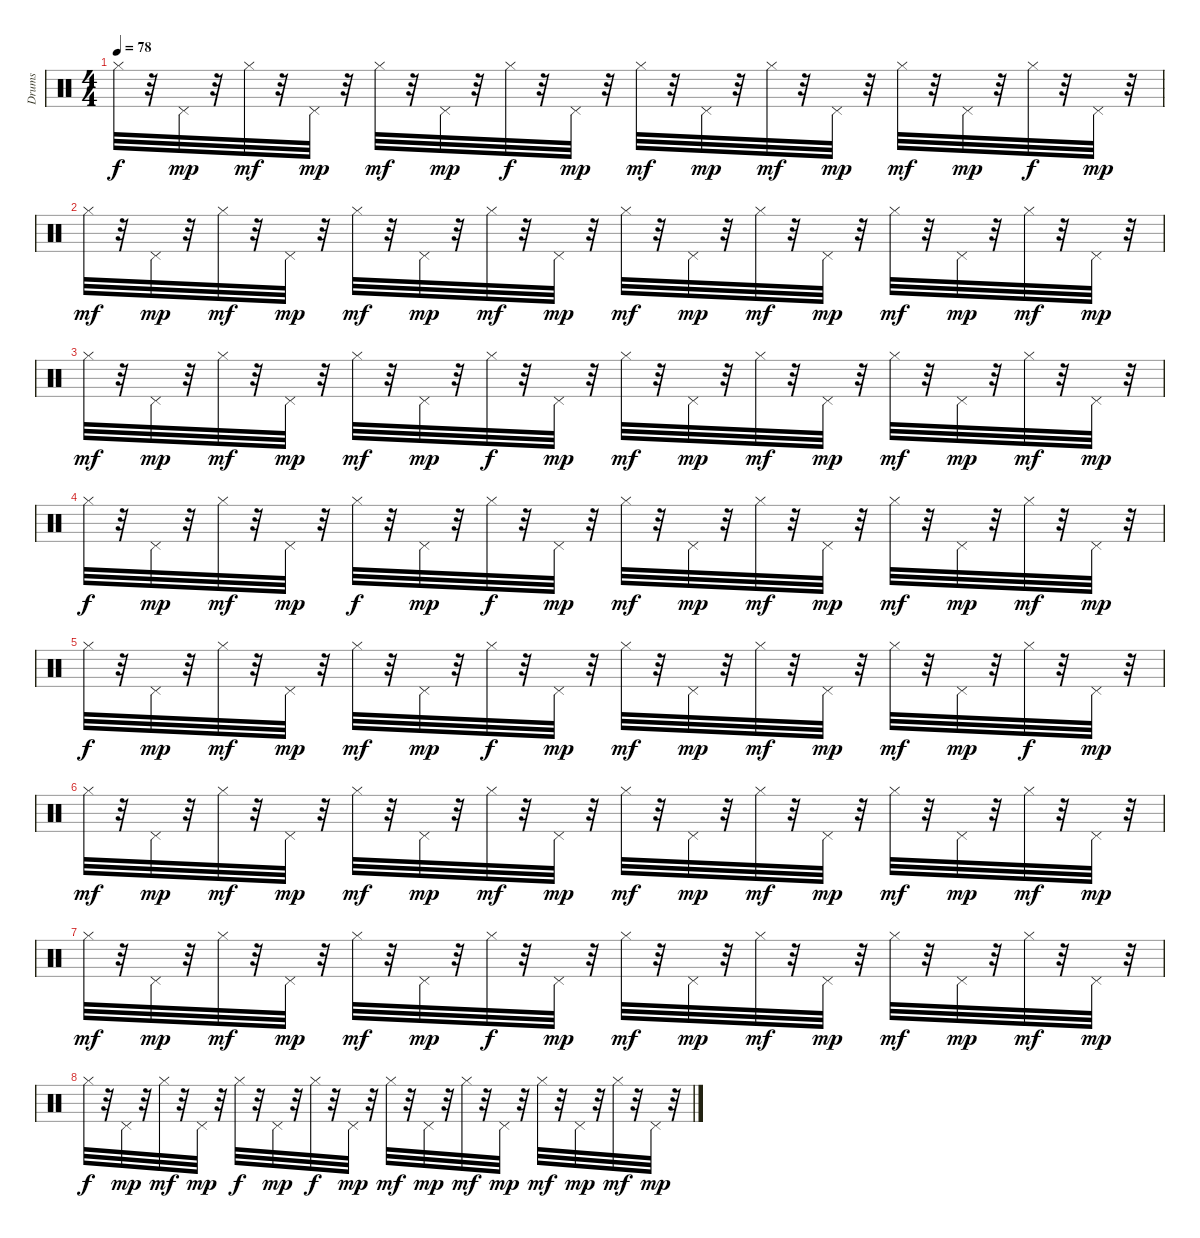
\track ("Drums   " "Drums   ") {instrument percussion}
\staff {score}
\articulation defaults
\ts (4 4)
\tempo 78
\clef neutral
\ks c "Hi-Hat (closed)".32{dy f}
r.32 "Pedal Hi-Hat (hit)".32{dy mp} r.32 "Hi-Hat (closed)".32{dy mf} r.32 "Pedal Hi-Hat (hit)".32{dy mp} r.32 "Hi-Hat (closed)".32{dy mf} r.32 "Pedal Hi-Hat (hit)".32{dy mp} r.32 "Hi-Hat (closed)".32{dy f} r.32 "Pedal Hi-Hat (hit)".32{dy mp} r.32 "Hi-Hat (closed)".32{dy mf} r.32 "Pedal Hi-Hat (hit)".32{dy mp} r.32 "Hi-Hat (closed)".32{dy mf} r.32 "Pedal Hi-Hat (hit)".32{dy mp} r.32 "Hi-Hat (closed)".32{dy mf} r.32 "Pedal Hi-Hat (hit)".32{dy mp} r.32 "Hi-Hat (closed)".32{dy f} r.32 "Pedal Hi-Hat (hit)".32{dy mp} r.32 |
"Hi-Hat (closed)".32{dy mf} r.32 "Pedal Hi-Hat (hit)".32{dy mp} r.32 "Hi-Hat (closed)".32{dy mf} r.32 "Pedal Hi-Hat (hit)".32{dy mp} r.32 "Hi-Hat (closed)".32{dy mf} r.32 "Pedal Hi-Hat (hit)".32{dy mp} r.32 "Hi-Hat (closed)".32{dy mf} r.32 "Pedal Hi-Hat (hit)".32{dy mp} r.32 "Hi-Hat (closed)".32{dy mf} r.32 "Pedal Hi-Hat (hit)".32{dy mp} r.32 "Hi-Hat (closed)".32{dy mf} r.32 "Pedal Hi-Hat (hit)".32{dy mp} r.32 "Hi-Hat (closed)".32{dy mf} r.32 "Pedal Hi-Hat (hit)".32{dy mp} r.32 "Hi-Hat (closed)".32{dy mf} r.32 "Pedal Hi-Hat (hit)".32{dy mp} r.32 |
"Hi-Hat (closed)".32{dy mf} r.32 "Pedal Hi-Hat (hit)".32{dy mp} r.32 "Hi-Hat (closed)".32{dy mf} r.32 "Pedal Hi-Hat (hit)".32{dy mp} r.32 "Hi-Hat (closed)".32{dy mf} r.32 "Pedal Hi-Hat (hit)".32{dy mp} r.32 "Hi-Hat (closed)".32{dy f} r.32 "Pedal Hi-Hat (hit)".32{dy mp} r.32 "Hi-Hat (closed)".32{dy mf} r.32 "Pedal Hi-Hat (hit)".32{dy mp} r.32 "Hi-Hat (closed)".32{dy mf} r.32 "Pedal Hi-Hat (hit)".32{dy mp} r.32 "Hi-Hat (closed)".32{dy mf} r.32 "Pedal Hi-Hat (hit)".32{dy mp} r.32 "Hi-Hat (closed)".32{dy mf} r.32 "Pedal Hi-Hat (hit)".32{dy mp} r.32 |
"Hi-Hat (closed)".32{dy f} r.32 "Pedal Hi-Hat (hit)".32{dy mp} r.32 "Hi-Hat (closed)".32{dy mf} r.32 "Pedal Hi-Hat (hit)".32{dy mp} r.32 "Hi-Hat (closed)".32{dy f} r.32 "Pedal Hi-Hat (hit)".32{dy mp} r.32 "Hi-Hat (closed)".32{dy f} r.32 "Pedal Hi-Hat (hit)".32{dy mp} r.32 "Hi-Hat (closed)".32{dy mf} r.32 "Pedal Hi-Hat (hit)".32{dy mp} r.32 "Hi-Hat (closed)".32{dy mf} r.32 "Pedal Hi-Hat (hit)".32{dy mp} r.32 "Hi-Hat (closed)".32{dy mf} r.32 "Pedal Hi-Hat (hit)".32{dy mp} r.32 "Hi-Hat (closed)".32{dy mf} r.32 "Pedal Hi-Hat (hit)".32{dy mp} r.32 |
"Hi-Hat (closed)".32{dy f} r.32 "Pedal Hi-Hat (hit)".32{dy mp} r.32 "Hi-Hat (closed)".32{dy mf} r.32 "Pedal Hi-Hat (hit)".32{dy mp} r.32 "Hi-Hat (closed)".32{dy mf} r.32 "Pedal Hi-Hat (hit)".32{dy mp} r.32 "Hi-Hat (closed)".32{dy f} r.32 "Pedal Hi-Hat (hit)".32{dy mp} r.32 "Hi-Hat (closed)".32{dy mf} r.32 "Pedal Hi-Hat (hit)".32{dy mp} r.32 "Hi-Hat (closed)".32{dy mf} r.32 "Pedal Hi-Hat (hit)".32{dy mp} r.32 "Hi-Hat (closed)".32{dy mf} r.32 "Pedal Hi-Hat (hit)".32{dy mp} r.32 "Hi-Hat (closed)".32{dy f} r.32 "Pedal Hi-Hat (hit)".32{dy mp} r.32 |
"Hi-Hat (closed)".32{dy mf} r.32 "Pedal Hi-Hat (hit)".32{dy mp} r.32 "Hi-Hat (closed)".32{dy mf} r.32 "Pedal Hi-Hat (hit)".32{dy mp} r.32 "Hi-Hat (closed)".32{dy mf} r.32 "Pedal Hi-Hat (hit)".32{dy mp} r.32 "Hi-Hat (closed)".32{dy mf} r.32 "Pedal Hi-Hat (hit)".32{dy mp} r.32 "Hi-Hat (closed)".32{dy mf} r.32 "Pedal Hi-Hat (hit)".32{dy mp} r.32 "Hi-Hat (closed)".32{dy mf} r.32 "Pedal Hi-Hat (hit)".32{dy mp} r.32 "Hi-Hat (closed)".32{dy mf} r.32 "Pedal Hi-Hat (hit)".32{dy mp} r.32 "Hi-Hat (closed)".32{dy mf} r.32 "Pedal Hi-Hat (hit)".32{dy mp} r.32 |
"Hi-Hat (closed)".32{dy mf} r.32 "Pedal Hi-Hat (hit)".32{dy mp} r.32 "Hi-Hat (closed)".32{dy mf} r.32 "Pedal Hi-Hat (hit)".32{dy mp} r.32 "Hi-Hat (closed)".32{dy mf} r.32 "Pedal Hi-Hat (hit)".32{dy mp} r.32 "Hi-Hat (closed)".32{dy f} r.32 "Pedal Hi-Hat (hit)".32{dy mp} r.32 "Hi-Hat (closed)".32{dy mf} r.32 "Pedal Hi-Hat (hit)".32{dy mp} r.32 "Hi-Hat (closed)".32{dy mf} r.32 "Pedal Hi-Hat (hit)".32{dy mp} r.32 "Hi-Hat (closed)".32{dy mf} r.32 "Pedal Hi-Hat (hit)".32{dy mp} r.32 "Hi-Hat (closed)".32{dy mf} r.32 "Pedal Hi-Hat (hit)".32{dy mp} r.32 |
"Hi-Hat (closed)".32{dy f} r.32 "Pedal Hi-Hat (hit)".32{dy mp} r.32 "Hi-Hat (closed)".32{dy mf} r.32 "Pedal Hi-Hat (hit)".32{dy mp} r.32 "Hi-Hat (closed)".32{dy f} r.32 "Pedal Hi-Hat (hit)".32{dy mp} r.32 "Hi-Hat (closed)".32{dy f} r.32 "Pedal Hi-Hat (hit)".32{dy mp} r.32 "Hi-Hat (closed)".32{dy mf} r.32 "Pedal Hi-Hat (hit)".32{dy mp} r.32 "Hi-Hat (closed)".32{dy mf} r.32 "Pedal Hi-Hat (hit)".32{dy mp} r.32 "Hi-Hat (closed)".32{dy mf} r.32 "Pedal Hi-Hat (hit)".32{dy mp} r.32 "Hi-Hat (closed)".32{dy mf} r.32 "Pedal Hi-Hat (hit)".32{dy mp} r.32
